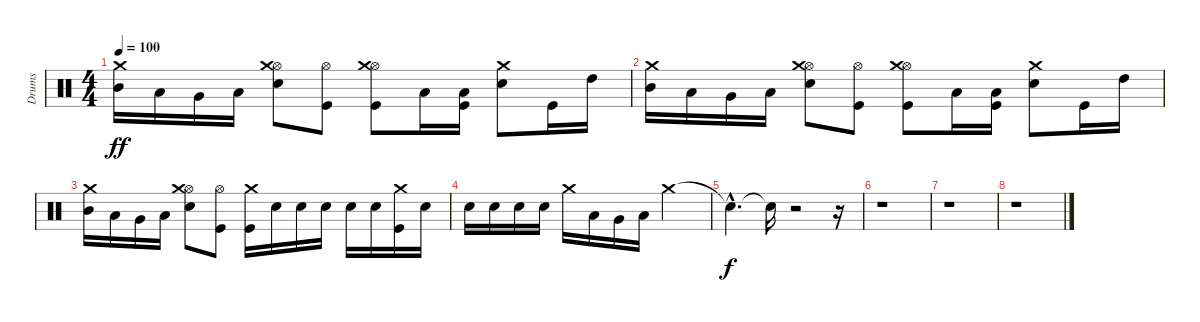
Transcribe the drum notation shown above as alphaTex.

\track ("Drums" "Drums") {instrument percussion}
\staff {score}
\articulation defaults
\ts (4 4)
\tempo 100
\clef neutral
\ks c
("Mid Tom (hit)" "Crash medium (hit)").16{dy ff} "Low Tom (hit)".16 "Very Low Tom (hit)".16 "Low Floor Tom (hit)".16 ("Electric Snare (hit)" "Hi-Hat (open)" "Crash medium (hit)").8 ("Kick (hit)" "Hi-Hat (open)").8 ("Kick (hit)" "Hi-Hat (open)" "Crash medium (hit)").8 "Low Tom (hit)".16 ("Kick (hit)" "Low Floor Tom (hit)").16 ("Electric Snare (hit)" "Crash medium (hit)").8 "Kick (hit)".16 "High Tom (hit)".16 |
("Mid Tom (hit)" "Crash medium (hit)").16 "Low Tom (hit)".16 "Very Low Tom (hit)".16 "Low Floor Tom (hit)".16 ("Electric Snare (hit)" "Hi-Hat (open)" "Crash medium (hit)").8 ("Kick (hit)" "Hi-Hat (open)").8 ("Kick (hit)" "Hi-Hat (open)" "Crash medium (hit)").8 "Low Tom (hit)".16 ("Kick (hit)" "Low Floor Tom (hit)").16 ("Electric Snare (hit)" "Crash medium (hit)").8 "Kick (hit)".16 "High Tom (hit)".16 |
("Mid Tom (hit)" "Crash medium (hit)").16 "Low Tom (hit)".16 "Very Low Tom (hit)".16 "Low Floor Tom (hit)".16 ("Electric Snare (hit)" "Hi-Hat (open)" "Crash medium (hit)").8 ("Kick (hit)" "Hi-Hat (open)").8 ("Kick (hit)" "Crash medium (hit)").16 "Electric Snare (hit)".16 "Electric Snare (hit)".16 "Electric Snare (hit)".16 "Electric Snare (hit)".16 "Electric Snare (hit)".16 ("Kick (hit)" "Crash medium (hit)").16 "Electric Snare (hit)".16 |
"Electric Snare (hit)".16 "Electric Snare (hit)".16 "Electric Snare (hit)".16 "Electric Snare (hit)".16 "Crash medium (hit)".16 "Low Tom (hit)".16 "Very Low Tom (hit)".16 "Low Floor Tom (hit)".16 "Crash medium (hit)".2 |
"Snare (hit)"{hac t}.4{d dy f} "Snare (hit)"{t}.16 r.2 r.16 |
r.1 |
r.1 |
r.1
